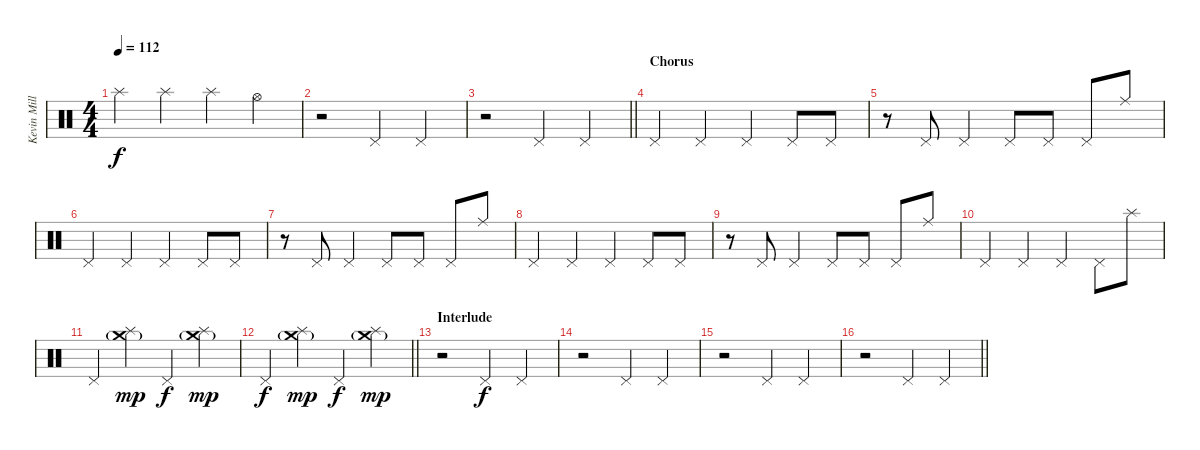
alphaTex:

\track ("Kevin Miller (Drums)" "Kevin Mill") {instrument percussion}
\staff {score}
\articulation defaults
\ts (4 4)
\tempo 112
\clef neutral
\ks c "Splash (hit)".4{dy f} "Splash (hit)".4 "Splash (hit)".4 "Hi-Hat (open)".4
|
r.2 "Pedal Hi-Hat (hit)".4 "Pedal Hi-Hat (hit)".4 |
\barLineRight lightlight
r.2 "Pedal Hi-Hat (hit)".4 "Pedal Hi-Hat (hit)".4 |
\section ("" "Chorus")
"Pedal Hi-Hat (hit)".4 "Pedal Hi-Hat (hit)".4 "Pedal Hi-Hat (hit)".4 "Pedal Hi-Hat (hit)".8 "Pedal Hi-Hat (hit)".8 |
r.8 "Pedal Hi-Hat (hit)".8 "Pedal Hi-Hat (hit)".4 "Pedal Hi-Hat (hit)".8 "Pedal Hi-Hat (hit)".8 "Pedal Hi-Hat (hit)".8 "Ride (middle)".8 |
"Pedal Hi-Hat (hit)".4 "Pedal Hi-Hat (hit)".4 "Pedal Hi-Hat (hit)".4 "Pedal Hi-Hat (hit)".8 "Pedal Hi-Hat (hit)".8 |
r.8 "Pedal Hi-Hat (hit)".8 "Pedal Hi-Hat (hit)".4 "Pedal Hi-Hat (hit)".8 "Pedal Hi-Hat (hit)".8 "Pedal Hi-Hat (hit)".8 "Ride (middle)".8 |
"Pedal Hi-Hat (hit)".4 "Pedal Hi-Hat (hit)".4 "Pedal Hi-Hat (hit)".4 "Pedal Hi-Hat (hit)".8 "Pedal Hi-Hat (hit)".8 |
r.8 "Pedal Hi-Hat (hit)".8 "Pedal Hi-Hat (hit)".4 "Pedal Hi-Hat (hit)".8 "Pedal Hi-Hat (hit)".8 "Pedal Hi-Hat (hit)".8 "Ride (middle)".8 |
"Pedal Hi-Hat (hit)".4 "Pedal Hi-Hat (hit)".4 "Pedal Hi-Hat (hit)".4 "Pedal Hi-Hat (hit)".8 "Splash (hit)".8 |
"Pedal Hi-Hat (hit)".4 ("Splash (hit)" "Crash medium (hit)"{g}).4{dy mp} "Pedal Hi-Hat (hit)".4{dy f} ("Splash (hit)" "Crash medium (hit)"{g}).4{dy mp} |
\barLineRight lightlight "Pedal Hi-Hat (hit)".4{dy f}
("Splash (hit)" "Crash medium (hit)"{g}).4{dy mp} "Pedal Hi-Hat (hit)".4{dy f} ("Splash (hit)" "Crash medium (hit)"{g}).4{dy mp} |
\section ("" "Interlude")
r.2 "Pedal Hi-Hat (hit)".4{dy f} "Pedal Hi-Hat (hit)".4 |
r.2 "Pedal Hi-Hat (hit)".4 "Pedal Hi-Hat (hit)".4 |
r.2 "Pedal Hi-Hat (hit)".4 "Pedal Hi-Hat (hit)".4 |
\barLineRight lightlight
r.2 "Pedal Hi-Hat (hit)".4 "Pedal Hi-Hat (hit)".4
